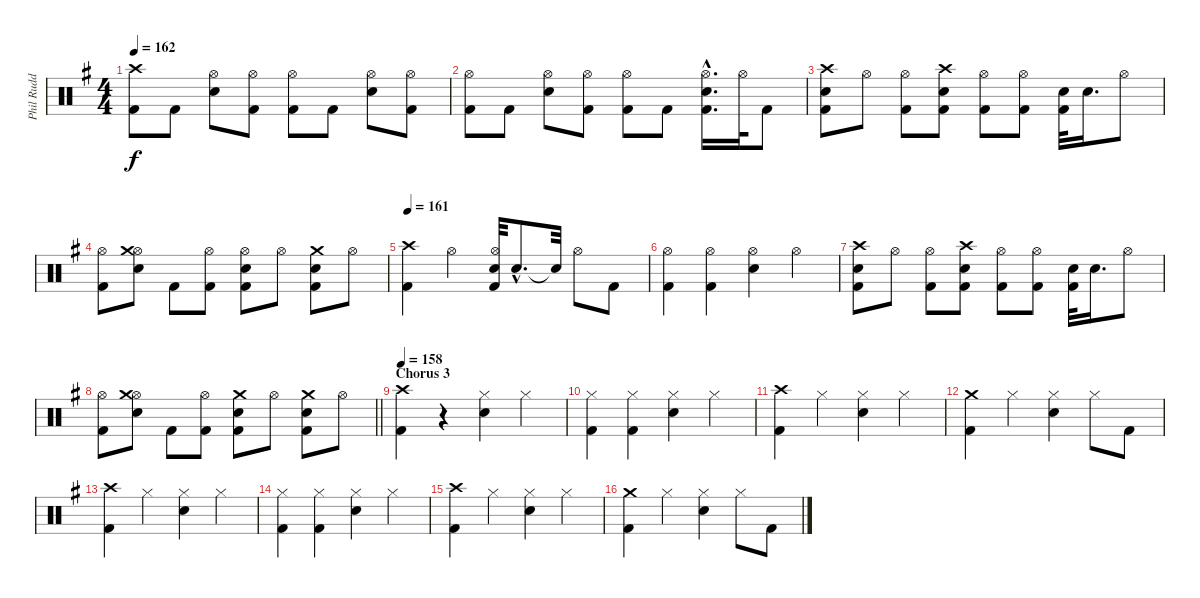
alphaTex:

\track ("Phil Rudd" "Phil Rudd") {instrument percussion}
\staff {score}
\articulation defaults
\ts (4 4)
\tempo 162
\clef neutral
\ks g
("Crash high (hit)" "Kick (hit) 2").8{dy f} "Kick (hit) 2".8 ("Hi-Hat (open)" "Snare (hit) 2").8 ("Kick (hit) 2" "Hi-Hat (open)").8 ("Hi-Hat (open)" "Kick (hit) 2").8 "Kick (hit) 2".8 ("Hi-Hat (open)" "Snare (hit) 2").8 ("Hi-Hat (open)" "Kick (hit) 2").8 |
("Hi-Hat (open)" "Kick (hit) 2").8 "Kick (hit) 2".8 ("Hi-Hat (open)" "Snare (hit) 2").8 ("Hi-Hat (open)" "Kick (hit) 2").8 ("Hi-Hat (open)" "Kick (hit) 2").8 "Kick (hit) 2".8 ("Kick (hit) 2" "Hi-Hat (open)"{hac} "Snare (hit) 2").16{d} "Hi-Hat (open)".32 "Kick (hit) 2".8 |
("Crash high (hit)" "Snare (hit) 2" "Kick (hit) 2").8 "Hi-Hat (open)".8 ("Hi-Hat (open)" "Kick (hit) 2").8 ("Crash high (hit)" "Snare (hit) 2" "Kick (hit) 2").8 ("Hi-Hat (open)" "Kick (hit) 2").8 ("Kick (hit) 2" "Hi-Hat (open)").8 ("Snare (hit) 2" "Kick (hit) 2").32 "Snare (hit) 2".16{d} "Hi-Hat (open)".8 |
("Kick (hit) 2" "Hi-Hat (open)").8 ("Hi-Hat (open)" "Crash medium (hit)" "Snare (hit) 2").8 "Kick (hit) 2".8 ("Kick (hit) 2" "Hi-Hat (open)").8 ("Hi-Hat (open)" "Kick (hit) 2" "Snare (hit) 2").8 "Hi-Hat (open)".8 ("Snare (hit) 2" "Kick (hit) 2" "Crash medium (hit)").8 "Hi-Hat (open)".8 |
\tempo 161
("Crash high (hit)" "Kick (hit) 2").4 "Hi-Hat (open)".4 ("Snare (hit) 2" "Kick (hit) 2" "Hi-Hat (open)").32 "Snare (hit) 2"{hac}.8{d} "Snare (hit)"{t}.32 "Hi-Hat (open)".8 "Kick (hit) 2".8 |
("Hi-Hat (open)" "Kick (hit) 2").4 ("Kick (hit) 2" "Hi-Hat (open)").4 ("Hi-Hat (open)" "Snare (hit) 2").4 "Hi-Hat (open)".4 |
("Crash high (hit)" "Snare (hit) 2" "Kick (hit) 2").8 "Hi-Hat (open)".8 ("Hi-Hat (open)" "Kick (hit) 2").8 ("Crash high (hit)" "Snare (hit) 2" "Kick (hit) 2").8 ("Hi-Hat (open)" "Kick (hit) 2").8 ("Kick (hit) 2" "Hi-Hat (open)").8 ("Snare (hit) 2" "Kick (hit) 2").32 "Snare (hit) 2".16{d} "Hi-Hat (open)".8 |
\barLineRight lightlight
("Kick (hit) 2" "Hi-Hat (open)").8 ("Hi-Hat (open)" "Crash medium (hit)" "Snare (hit) 2").8 "Kick (hit) 2".8 ("Kick (hit) 2" "Hi-Hat (open)").8 ("Crash medium (hit)" "Kick (hit) 2" "Snare (hit) 2").8 "Hi-Hat (open)".8 ("Snare (hit) 2" "Kick (hit) 2" "Crash medium (hit)").8 "Hi-Hat (open)".8 |
\section ("" "Chorus 3")
\tempo 158
("Kick (hit) 2" "Crash high (hit)").4 r.4 ("Snare (hit) 2" "Hi-Hat (closed)").4 "Hi-Hat (closed)".4 |
("Kick (hit) 2" "Hi-Hat (closed)").4 ("Hi-Hat (closed)" "Kick (hit) 2").4 ("Snare (hit) 2" "Hi-Hat (closed)").4 "Hi-Hat (closed)".4 |
("Kick (hit) 2" "Crash high (hit)").4 "Hi-Hat (closed)".4 ("Snare (hit) 2" "Hi-Hat (closed)").4 "Hi-Hat (closed)".4 |
("Kick (hit) 2" "Crash medium (hit)").4 "Hi-Hat (closed)".4 ("Hi-Hat (closed)" "Snare (hit) 2").4 "Hi-Hat (closed)".8 "Kick (hit) 2".8 |
("Crash high (hit)" "Kick (hit) 2").4 "Hi-Hat (closed)".4 ("Hi-Hat (closed)" "Snare (hit) 2").4 "Hi-Hat (closed)".4 |
("Kick (hit) 2" "Hi-Hat (closed)").4 ("Hi-Hat (closed)" "Kick (hit) 2").4 ("Hi-Hat (closed)" "Snare (hit) 2").4 "Hi-Hat (closed)".4 |
("Kick (hit) 2" "Crash high (hit)").4 "Hi-Hat (closed)".4 ("Snare (hit) 2" "Hi-Hat (closed)").4 "Hi-Hat (closed)".4 |
("Crash medium (hit)" "Kick (hit) 2").4 "Hi-Hat (closed)".4 ("Hi-Hat (closed)" "Snare (hit) 2").4 "Hi-Hat (closed)".8 "Kick (hit) 2".8
